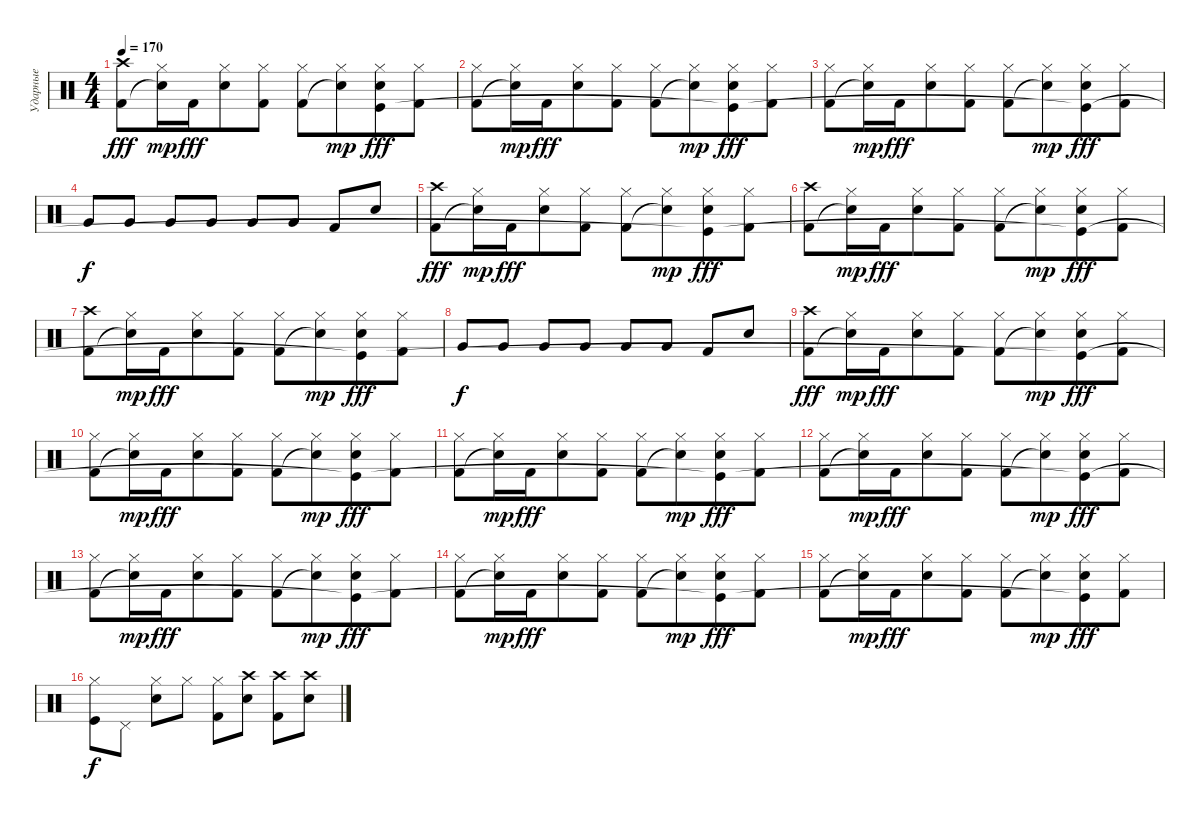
\track ("Ударные" "Ударные") {instrument percussion}
\staff {score}
\articulation defaults
\ts (4 4)
\tempo 170
\clef neutral
\ks c
("Crash high (hit)" "Kick (hit) 2").8{dy fff} ("Hi-Hat (closed)" "Snare (hit)"{t}).16{dy mp} "Kick (hit) 2".16{dy fff beam merge} ("Hi-Hat (closed)" "Electric Snare (hit)").8 ("Hi-Hat (closed)" "Kick (hit) 2").8 ("Hi-Hat (closed)" "Kick (hit) 2").8 ("Hi-Hat (closed)" "Snare (hit)"{t}).8{dy mp beam merge} ("Hi-Hat (closed)" "Electric Snare (hit)" "Kick (hit)"{t}).8{dy fff} ("Hi-Hat (closed)" "Kick (hit) 2").8 |
("Hi-Hat (closed)" "Kick (hit) 2").8 ("Hi-Hat (closed)" "Snare (hit)"{t}).16{dy mp} "Kick (hit) 2".16{dy fff beam merge} ("Hi-Hat (closed)" "Electric Snare (hit)").8 ("Hi-Hat (closed)" "Kick (hit) 2").8 ("Hi-Hat (closed)" "Kick (hit) 2").8 ("Hi-Hat (closed)" "Snare (hit)"{t}).8{dy mp beam merge} ("Hi-Hat (closed)" "Electric Snare (hit)" "Kick (hit)"{t}).8{dy fff} ("Hi-Hat (closed)" "Kick (hit) 2").8 |
("Hi-Hat (closed)" "Kick (hit) 2").8 ("Hi-Hat (closed)" "Snare (hit)"{t}).16{dy mp} "Kick (hit) 2".16{dy fff beam merge} ("Hi-Hat (closed)" "Electric Snare (hit)").8 ("Hi-Hat (closed)" "Kick (hit) 2").8 ("Hi-Hat (closed)" "Kick (hit) 2").8 ("Hi-Hat (closed)" "Snare (hit)"{t}).8{dy mp beam merge} ("Hi-Hat (closed)" "Electric Snare (hit)" "Kick (hit)"{t}).8{dy fff} ("Hi-Hat (closed)" "Kick (hit) 2").8 |
"Very Low Tom (hit)".8{dy f} "Very Low Tom (hit)".8 "Very Low Tom (hit)".8 "Very Low Tom (hit)".8 "Very Low Tom (hit)".8 "Very Low Tom (hit)".8 "Kick (hit) 2".8 "Electric Snare (hit)".8 |
("Crash high (hit)" "Kick (hit) 2").8{dy fff} ("Hi-Hat (closed)" "Snare (hit)"{t}).16{dy mp} "Kick (hit) 2".16{dy fff beam merge} ("Hi-Hat (closed)" "Electric Snare (hit)").8 ("Hi-Hat (closed)" "Kick (hit) 2").8 ("Hi-Hat (closed)" "Kick (hit) 2").8 ("Hi-Hat (closed)" "Snare (hit)"{t}).8{dy mp beam merge} ("Hi-Hat (closed)" "Electric Snare (hit)" "Kick (hit)"{t}).8{dy fff} ("Hi-Hat (closed)" "Kick (hit) 2").8 |
("Crash high (hit)" "Kick (hit) 2").8 ("Hi-Hat (closed)" "Snare (hit)"{t}).16{dy mp} "Kick (hit) 2".16{dy fff beam merge} ("Hi-Hat (closed)" "Electric Snare (hit)").8 ("Hi-Hat (closed)" "Kick (hit) 2").8 ("Hi-Hat (closed)" "Kick (hit) 2").8 ("Hi-Hat (closed)" "Snare (hit)"{t}).8{dy mp beam merge} ("Hi-Hat (closed)" "Electric Snare (hit)" "Kick (hit)"{t}).8{dy fff} ("Hi-Hat (closed)" "Kick (hit) 2").8 |
("Crash high (hit)" "Kick (hit) 2").8 ("Hi-Hat (closed)" "Snare (hit)"{t}).16{dy mp} "Kick (hit) 2".16{dy fff beam merge} ("Hi-Hat (closed)" "Electric Snare (hit)").8 ("Hi-Hat (closed)" "Kick (hit) 2").8 ("Hi-Hat (closed)" "Kick (hit) 2").8 ("Hi-Hat (closed)" "Snare (hit)"{t}).8{dy mp beam merge} ("Hi-Hat (closed)" "Electric Snare (hit)" "Kick (hit)"{t}).8{dy fff} ("Hi-Hat (closed)" "Kick (hit) 2").8 |
"Very Low Tom (hit)".8{dy f} "Very Low Tom (hit)".8 "Very Low Tom (hit)".8 "Very Low Tom (hit)".8 "Very Low Tom (hit)".8 "Very Low Tom (hit)".8 "Kick (hit) 2".8 "Electric Snare (hit)".8 |
("Crash high (hit)" "Kick (hit) 2").8{dy fff} ("Hi-Hat (closed)" "Snare (hit)"{t}).16{dy mp} "Kick (hit) 2".16{dy fff beam merge} ("Hi-Hat (closed)" "Electric Snare (hit)").8 ("Hi-Hat (closed)" "Kick (hit) 2").8 ("Hi-Hat (closed)" "Kick (hit) 2").8 ("Hi-Hat (closed)" "Snare (hit)"{t}).8{dy mp beam merge} ("Hi-Hat (closed)" "Electric Snare (hit)" "Kick (hit)"{t}).8{dy fff} ("Hi-Hat (closed)" "Kick (hit) 2").8 |
("Hi-Hat (closed)" "Kick (hit) 2").8 ("Hi-Hat (closed)" "Snare (hit)"{t}).16{dy mp} "Kick (hit) 2".16{dy fff beam merge} ("Hi-Hat (closed)" "Electric Snare (hit)").8 ("Hi-Hat (closed)" "Kick (hit) 2").8 ("Hi-Hat (closed)" "Kick (hit) 2").8 ("Hi-Hat (closed)" "Snare (hit)"{t}).8{dy mp beam merge} ("Hi-Hat (closed)" "Electric Snare (hit)" "Kick (hit)"{t}).8{dy fff} ("Hi-Hat (closed)" "Kick (hit) 2").8 |
("Hi-Hat (closed)" "Kick (hit) 2").8 ("Hi-Hat (closed)" "Snare (hit)"{t}).16{dy mp} "Kick (hit) 2".16{dy fff beam merge} ("Hi-Hat (closed)" "Electric Snare (hit)").8 ("Hi-Hat (closed)" "Kick (hit) 2").8 ("Hi-Hat (closed)" "Kick (hit) 2").8 ("Hi-Hat (closed)" "Snare (hit)"{t}).8{dy mp beam merge} ("Hi-Hat (closed)" "Electric Snare (hit)" "Kick (hit)"{t}).8{dy fff} ("Hi-Hat (closed)" "Kick (hit) 2").8 |
("Hi-Hat (closed)" "Kick (hit) 2").8 ("Hi-Hat (closed)" "Snare (hit)"{t}).16{dy mp} "Kick (hit) 2".16{dy fff beam merge} ("Hi-Hat (closed)" "Electric Snare (hit)").8 ("Hi-Hat (closed)" "Kick (hit) 2").8 ("Hi-Hat (closed)" "Kick (hit) 2").8 ("Hi-Hat (closed)" "Snare (hit)"{t}).8{dy mp beam merge} ("Hi-Hat (closed)" "Electric Snare (hit)" "Kick (hit)"{t}).8{dy fff} ("Hi-Hat (closed)" "Kick (hit) 2").8 |
("Hi-Hat (closed)" "Kick (hit) 2").8 ("Hi-Hat (closed)" "Snare (hit)"{t}).16{dy mp} "Kick (hit) 2".16{dy fff beam merge} ("Hi-Hat (closed)" "Electric Snare (hit)").8 ("Hi-Hat (closed)" "Kick (hit) 2").8 ("Hi-Hat (closed)" "Kick (hit) 2").8 ("Hi-Hat (closed)" "Snare (hit)"{t}).8{dy mp beam merge} ("Hi-Hat (closed)" "Electric Snare (hit)" "Kick (hit)"{t}).8{dy fff} ("Hi-Hat (closed)" "Kick (hit) 2").8 |
("Hi-Hat (closed)" "Kick (hit) 2").8 ("Hi-Hat (closed)" "Snare (hit)"{t}).16{dy mp} "Kick (hit) 2".16{dy fff beam merge} ("Hi-Hat (closed)" "Electric Snare (hit)").8 ("Hi-Hat (closed)" "Kick (hit) 2").8 ("Hi-Hat (closed)" "Kick (hit) 2").8 ("Hi-Hat (closed)" "Snare (hit)"{t}).8{dy mp beam merge} ("Hi-Hat (closed)" "Electric Snare (hit)" "Kick (hit)"{t}).8{dy fff} ("Hi-Hat (closed)" "Kick (hit) 2").8 |
("Hi-Hat (closed)" "Kick (hit) 2").8 ("Hi-Hat (closed)" "Snare (hit)"{t}).16{dy mp} "Kick (hit) 2".16{dy fff beam merge} ("Hi-Hat (closed)" "Electric Snare (hit)").8 ("Hi-Hat (closed)" "Kick (hit) 2").8 ("Hi-Hat (closed)" "Kick (hit) 2").8 ("Hi-Hat (closed)" "Snare (hit)"{t}).8{dy mp beam merge} ("Hi-Hat (closed)" "Electric Snare (hit)" "Kick (hit)"{t}).8{dy fff} ("Hi-Hat (closed)" "Kick (hit) 2").8 |
("Kick (hit)" "Hi-Hat (closed)").8{dy f} "Pedal Hi-Hat (hit)".8 ("Electric Snare (hit)" "Hi-Hat (closed)").8 "Hi-Hat (closed)".8 ("Kick (hit) 2" "Hi-Hat (closed)").8 ("Electric Snare (hit)" "Crash high (hit)").8 ("Kick (hit) 2" "Crash high (hit)").8 ("Electric Snare (hit)" "Crash high (hit)").8
